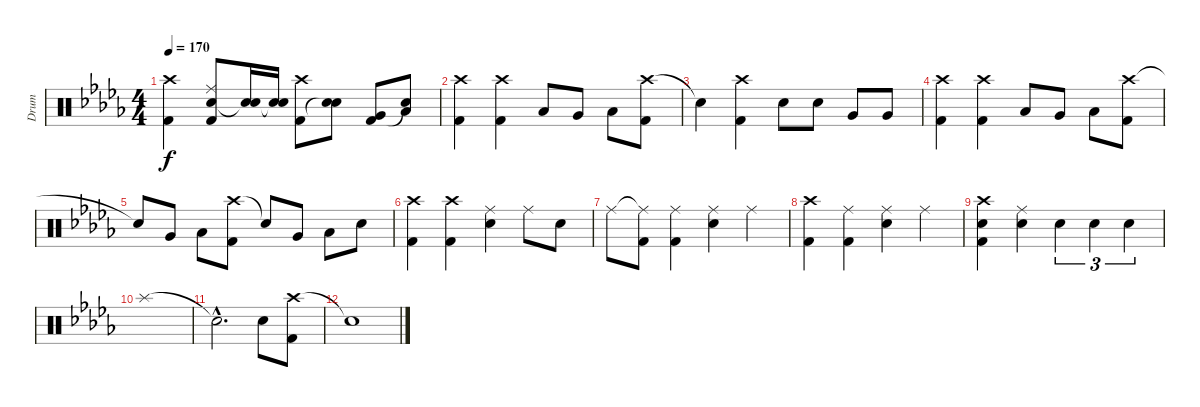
\track ("Drum" "Drum") {instrument percussion}
\staff {score}
\articulation defaults
\ts (4 4)
\tempo 170
\clef neutral
\ks db
("Crash high (hit)" "Kick (hit) 2").4{dy f} ("Ride (middle)" "Electric Snare (hit)" "Kick (hit) 2").8 ("Electric Snare (hit)" "Snare (hit)"{t}).16 ("Electric Snare (hit)" "Snare (hit)"{t}).16 ("Crash high (hit)" "Kick (hit) 2").8 ("Electric Snare (hit)" "Snare (hit)"{t}).8 ("Very Low Tom (hit)" "Kick (hit) 2").8 ("Low Floor Tom (hit)" "Snare (hit)"{t}).8 |
("Crash high (hit)" "Kick (hit) 2").4 ("Crash high (hit)" "Kick (hit) 2").4 "Low Tom (hit)".8 "Very Low Tom (hit)".8 "Low Floor Tom (hit)".8 ("Crash high (hit)" "Kick (hit) 2").8 |
"Snare (hit)"{t}.4 ("Crash high (hit)" "Kick (hit) 2").4 "Electric Snare (hit)".8 "Electric Snare (hit)".8 "Very Low Tom (hit)".8 "Very Low Tom (hit)".8 |
("Crash high (hit)" "Kick (hit) 2").4 ("Crash high (hit)" "Kick (hit) 2").4 "Low Tom (hit)".8 "Very Low Tom (hit)".8 "Low Floor Tom (hit)".8 ("Crash high (hit)" "Kick (hit) 2").8 |
"Snare (hit)"{t}.8 "Very Low Tom (hit)".8 "Low Floor Tom (hit)".8 ("Crash high (hit)" "Kick (hit) 2").8 "Snare (hit)"{t}.8 "Very Low Tom (hit)".8 "Low Floor Tom (hit)".8 "Electric Snare (hit)".8 |
("Crash high (hit)" "Kick (hit) 2").4 ("Crash high (hit)" "Kick (hit) 2").4 ("Ride (middle)" "Electric Snare (hit)").4 "Ride (middle)".8 "Electric Snare (hit)".8 |
"Ride (middle)".8 ("Ride (middle)"{t} "Kick (hit) 2").8 ("Ride (middle)" "Kick (hit) 2").4 ("Ride (middle)" "Electric Snare (hit)").4 "Ride (middle)".4 |
("Crash high (hit)" "Kick (hit) 2").4 ("Ride (middle)" "Kick (hit) 2").4 ("Ride (middle)" "Electric Snare (hit)").4 "Ride (middle)".4 |
("Crash high (hit)" "Electric Snare (hit)" "Kick (hit) 2").4 ("Ride (middle)" "Electric Snare (hit)").4 "Electric Snare (hit)".4{tu (3 2)} "Electric Snare (hit)".4{tu (3 2)} "Electric Snare (hit)".4{tu (3 2)} |
"Splash (hit)".1 |
"Snare (hit)"{hac t}.2{d} "Electric Snare (hit)".8 ("Crash high (hit)" "Kick (hit) 2").8 |
"Snare (hit)"{t}.1
